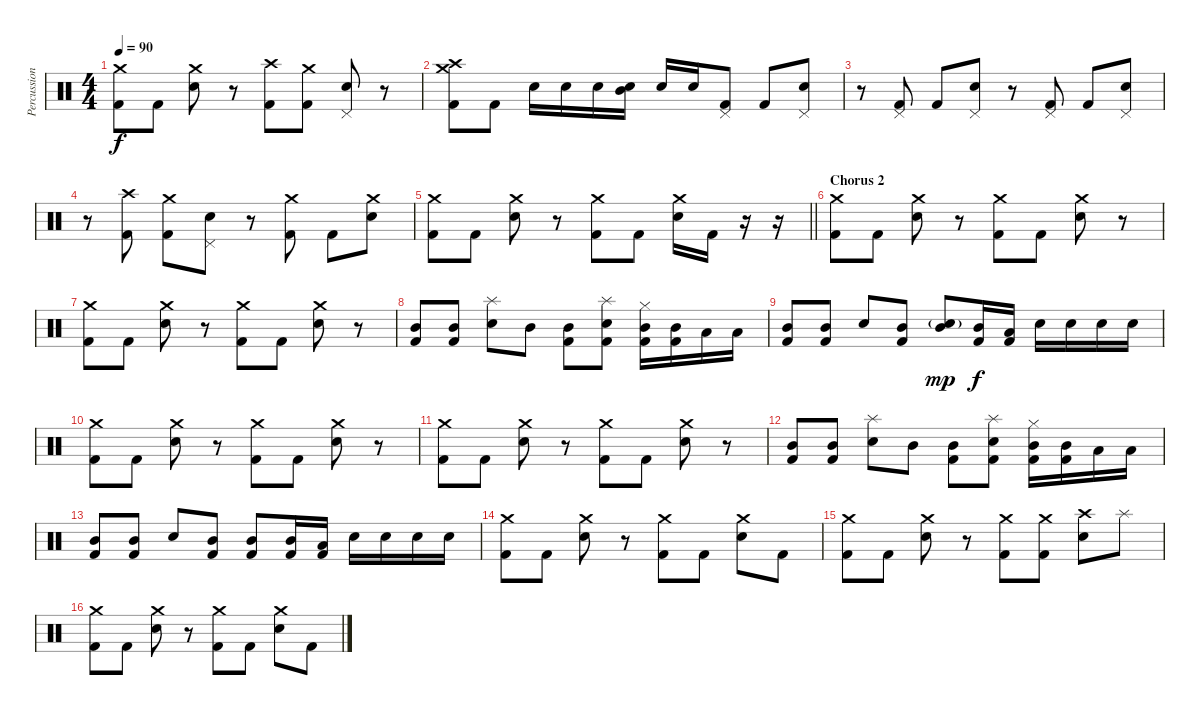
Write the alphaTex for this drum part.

\track ("Percussion" "Percussion") {instrument percussion}
\staff {score}
\articulation defaults
\ts (4 4)
\tempo 90
\clef neutral
\ks c
("Kick (hit) 2" "Crash medium (hit)").8{dy f} "Kick (hit) 2".8 ("Snare (hit) 2" "Crash medium (hit)").8 r.8 ("Kick (hit) 2" "Crash high (hit)").8 ("Kick (hit) 2" "Crash medium (hit)").8 ("Snare (hit) 2" "Pedal Hi-Hat (hit)").8 r.8 |
("Kick (hit) 2" "Crash medium (hit)" "Crash high (hit)").8 "Kick (hit) 2".8 "Snare (hit) 2".16 "Snare (hit) 2".16 "Snare (hit) 2".16 ("Snare (hit) 2" "Mid Tom (hit)").16 "Snare (hit) 2".16 "Snare (hit) 2".16 ("Kick (hit) 2" "Pedal Hi-Hat (hit)").8 "Kick (hit) 2".8 ("Snare (hit) 2" "Pedal Hi-Hat (hit)").8 |
r.8 ("Kick (hit) 2" "Pedal Hi-Hat (hit)").8 "Kick (hit) 2".8 ("Snare (hit) 2" "Pedal Hi-Hat (hit)").8 r.8 ("Kick (hit) 2" "Pedal Hi-Hat (hit)").8 "Kick (hit) 2".8 ("Snare (hit) 2" "Pedal Hi-Hat (hit)").8 |
r.8 ("Kick (hit) 2" "Crash high (hit)").8 ("Kick (hit) 2" "Crash medium (hit)").8 ("Snare (hit) 2" "Pedal Hi-Hat (hit)").8 r.8 ("Kick (hit) 2" "Crash medium (hit)").8 "Kick (hit) 2".8 ("Snare (hit) 2" "Crash medium (hit)").8 |
\barLineRight lightlight
("Kick (hit) 2" "Crash medium (hit)").8 "Kick (hit) 2".8 ("Snare (hit) 2" "Crash medium (hit)").8 r.8 ("Kick (hit) 2" "Crash medium (hit)").8 "Kick (hit) 2".8 ("Snare (hit) 2" "Crash medium (hit)").16 "Kick (hit) 2".16 r.16 r.16 |
\section ("" "Chorus 2")
("Kick (hit) 2" "Crash medium (hit)").8 "Kick (hit) 2".8 ("Snare (hit) 2" "Crash medium (hit)").8 r.8 ("Kick (hit) 2" "Crash medium (hit)").8 "Kick (hit) 2".8 ("Snare (hit) 2" "Crash medium (hit)").8 r.8 |
("Kick (hit) 2" "Crash medium (hit)").8 "Kick (hit) 2".8 ("Snare (hit) 2" "Crash medium (hit)").8 r.8 ("Kick (hit) 2" "Crash medium (hit)").8 "Kick (hit) 2".8 ("Snare (hit) 2" "Crash medium (hit)").8 r.8 |
("Kick (hit) 2" "Mid Tom (hit)").8 ("Kick (hit) 2" "Mid Tom (hit)").8 ("Snare (hit) 2" "Splash (hit)").8 "Mid Tom (hit)".8 ("Kick (hit) 2" "Mid Tom (hit)").8 ("Kick (hit) 2" "Snare (hit) 2" "Splash (hit)").8 ("Kick (hit) 2" "Mid Tom (hit)" "Hi-Hat (closed)").16 ("Kick (hit) 2" "Mid Tom (hit)").16 "Low Tom (hit)".16 "Low Tom (hit)".16 |
("Kick (hit) 2" "Mid Tom (hit)").8 ("Kick (hit) 2" "Mid Tom (hit)").8 "Snare (hit) 2".8 ("Kick (hit) 2" "Mid Tom (hit)").8 ("Snare (hit) 2"{g} "Mid Tom (hit)").8{dy mp} ("Kick (hit) 2" "Mid Tom (hit)").16{dy f} ("Kick (hit) 2" "Low Tom (hit)").16 "Snare (hit) 2".16 "Snare (hit) 2".16 "Snare (hit) 2".16 "Snare (hit) 2".16 |
("Kick (hit) 2" "Crash medium (hit)").8 "Kick (hit) 2".8 ("Snare (hit) 2" "Crash medium (hit)").8 r.8 ("Kick (hit) 2" "Crash medium (hit)").8 "Kick (hit) 2".8 ("Snare (hit) 2" "Crash medium (hit)").8 r.8 |
("Kick (hit) 2" "Crash medium (hit)").8 "Kick (hit) 2".8 ("Snare (hit) 2" "Crash medium (hit)").8 r.8 ("Kick (hit) 2" "Crash medium (hit)").8 "Kick (hit) 2".8 ("Snare (hit) 2" "Crash medium (hit)").8 r.8 |
("Kick (hit) 2" "Mid Tom (hit)").8 ("Kick (hit) 2" "Mid Tom (hit)").8 ("Snare (hit) 2" "Splash (hit)").8 "Mid Tom (hit)".8 ("Kick (hit) 2" "Mid Tom (hit)").8 ("Kick (hit) 2" "Snare (hit) 2" "Splash (hit)").8 ("Kick (hit) 2" "Mid Tom (hit)" "Hi-Hat (closed)").16 ("Kick (hit) 2" "Mid Tom (hit)").16 "Low Tom (hit)".16 "Low Tom (hit)".16 |
("Kick (hit) 2" "Mid Tom (hit)").8 ("Kick (hit) 2" "Mid Tom (hit)").8 "Snare (hit) 2".8 ("Kick (hit) 2" "Mid Tom (hit)").8 ("Kick (hit) 2" "Mid Tom (hit)").8 ("Kick (hit) 2" "Mid Tom (hit)").16 ("Kick (hit) 2" "Low Tom (hit)").16 "Snare (hit) 2".16 "Snare (hit) 2".16 "Snare (hit) 2".16 "Snare (hit) 2".16 |
("Kick (hit) 2" "Crash medium (hit)").8 "Kick (hit) 2".8 ("Snare (hit) 2" "Crash medium (hit)").8 r.8 ("Kick (hit) 2" "Crash medium (hit)").8 "Kick (hit) 2".8 ("Snare (hit) 2" "Crash medium (hit)").8 "Kick (hit) 2".8 |
("Kick (hit) 2" "Crash medium (hit)").8 "Kick (hit) 2".8 ("Snare (hit) 2" "Crash medium (hit)").8 r.8 ("Kick (hit) 2" "Crash medium (hit)").8 ("Kick (hit) 2" "Crash medium (hit)").8 ("Snare (hit) 2" "Crash high (hit)").8 "Splash (hit)".8 |
("Kick (hit) 2" "Crash medium (hit)").8 "Kick (hit) 2".8 ("Snare (hit) 2" "Crash medium (hit)").8 r.8 ("Kick (hit) 2" "Crash medium (hit)").8 "Kick (hit) 2".8 ("Snare (hit) 2" "Crash medium (hit)").8 "Kick (hit) 2".8
